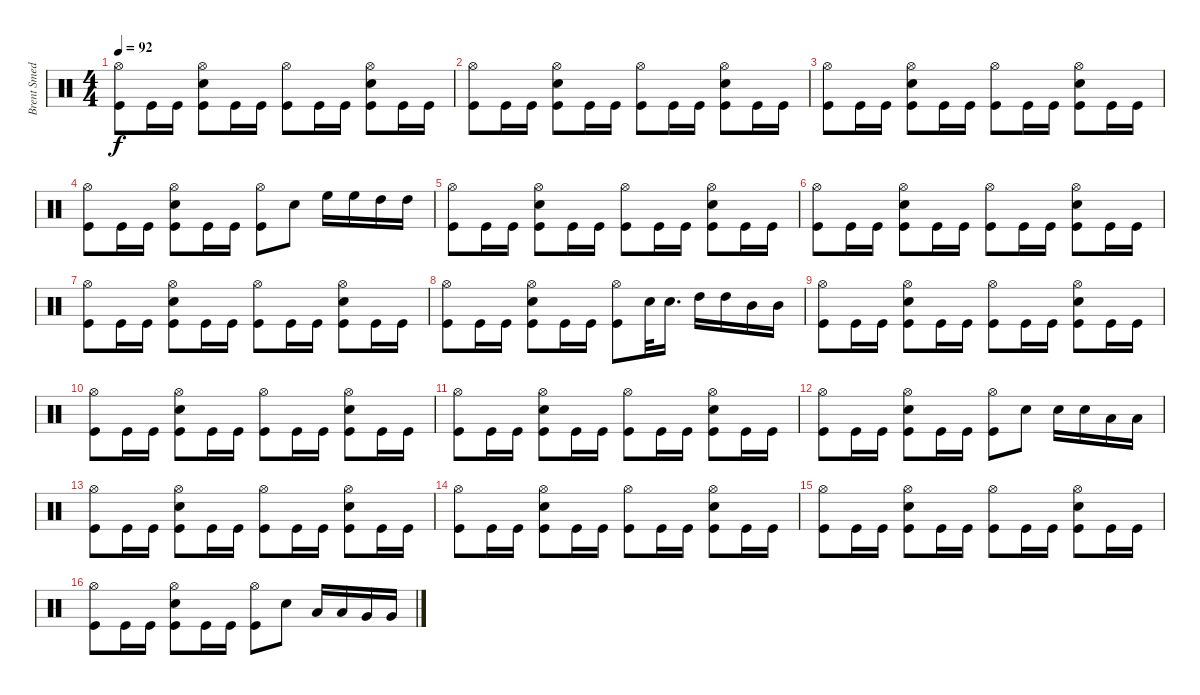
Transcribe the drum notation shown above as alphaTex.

\track ("Brent Smedley" "Brent Smed") {instrument percussion}
\staff {score}
\articulation defaults
\ts (4 4)
\tempo 92
\clef neutral
\ks c
("Hi-Hat (open)" "Kick (hit)").8{dy f} "Kick (hit)".16 "Kick (hit)".16 ("Hi-Hat (open)" "Electric Snare (hit)" "Kick (hit)").8 "Kick (hit)".16 "Kick (hit)".16 ("Hi-Hat (open)" "Kick (hit)").8 "Kick (hit)".16 "Kick (hit)".16 ("Hi-Hat (open)" "Electric Snare (hit)" "Kick (hit)").8 "Kick (hit)".16 "Kick (hit)".16 |
("Hi-Hat (open)" "Kick (hit)").8 "Kick (hit)".16 "Kick (hit)".16 ("Hi-Hat (open)" "Electric Snare (hit)" "Kick (hit)").8 "Kick (hit)".16 "Kick (hit)".16 ("Hi-Hat (open)" "Kick (hit)").8 "Kick (hit)".16 "Kick (hit)".16 ("Hi-Hat (open)" "Electric Snare (hit)" "Kick (hit)").8 "Kick (hit)".16 "Kick (hit)".16 |
("Hi-Hat (open)" "Kick (hit)").8 "Kick (hit)".16 "Kick (hit)".16 ("Hi-Hat (open)" "Electric Snare (hit)" "Kick (hit)").8 "Kick (hit)".16 "Kick (hit)".16 ("Hi-Hat (open)" "Kick (hit)").8 "Kick (hit)".16 "Kick (hit)".16 ("Hi-Hat (open)" "Electric Snare (hit)" "Kick (hit)").8 "Kick (hit)".16 "Kick (hit)".16 |
("Hi-Hat (open)" "Kick (hit)").8 "Kick (hit)".16 "Kick (hit)".16 ("Hi-Hat (open)" "Electric Snare (hit)" "Kick (hit)").8 "Kick (hit)".16 "Kick (hit)".16 ("Hi-Hat (open)" "Kick (hit)").8 "Electric Snare (hit)".8 "High Floor Tom (hit)".16 "High Floor Tom (hit)".16 "High Tom (hit)".16 "High Tom (hit)".16 |
("Hi-Hat (open)" "Kick (hit)").8 "Kick (hit)".16 "Kick (hit)".16 ("Hi-Hat (open)" "Electric Snare (hit)" "Kick (hit)").8 "Kick (hit)".16 "Kick (hit)".16 ("Hi-Hat (open)" "Kick (hit)").8 "Kick (hit)".16 "Kick (hit)".16 ("Hi-Hat (open)" "Electric Snare (hit)" "Kick (hit)").8 "Kick (hit)".16 "Kick (hit)".16 |
("Hi-Hat (open)" "Kick (hit)").8 "Kick (hit)".16 "Kick (hit)".16 ("Hi-Hat (open)" "Electric Snare (hit)" "Kick (hit)").8 "Kick (hit)".16 "Kick (hit)".16 ("Hi-Hat (open)" "Kick (hit)").8 "Kick (hit)".16 "Kick (hit)".16 ("Hi-Hat (open)" "Electric Snare (hit)" "Kick (hit)").8 "Kick (hit)".16 "Kick (hit)".16 |
("Hi-Hat (open)" "Kick (hit)").8 "Kick (hit)".16 "Kick (hit)".16 ("Hi-Hat (open)" "Electric Snare (hit)" "Kick (hit)").8 "Kick (hit)".16 "Kick (hit)".16 ("Hi-Hat (open)" "Kick (hit)").8 "Kick (hit)".16 "Kick (hit)".16 ("Hi-Hat (open)" "Electric Snare (hit)" "Kick (hit)").8 "Kick (hit)".16 "Kick (hit)".16 |
("Hi-Hat (open)" "Kick (hit)").8 "Kick (hit)".16 "Kick (hit)".16 ("Hi-Hat (open)" "Electric Snare (hit)" "Kick (hit)").8 "Kick (hit)".16 "Kick (hit)".16 ("Hi-Hat (open)" "Kick (hit)").8 "Electric Snare (hit)".32 "Electric Snare (hit)".16{d} "High Tom (hit)".16 "High Tom (hit)".16 "Mid Tom (hit)".16 "Mid Tom (hit)".16 |
("Hi-Hat (open)" "Kick (hit)").8 "Kick (hit)".16 "Kick (hit)".16 ("Hi-Hat (open)" "Electric Snare (hit)" "Kick (hit)").8 "Kick (hit)".16 "Kick (hit)".16 ("Hi-Hat (open)" "Kick (hit)").8 "Kick (hit)".16 "Kick (hit)".16 ("Hi-Hat (open)" "Electric Snare (hit)" "Kick (hit)").8 "Kick (hit)".16 "Kick (hit)".16 |
("Hi-Hat (open)" "Kick (hit)").8 "Kick (hit)".16 "Kick (hit)".16 ("Hi-Hat (open)" "Electric Snare (hit)" "Kick (hit)").8 "Kick (hit)".16 "Kick (hit)".16 ("Hi-Hat (open)" "Kick (hit)").8 "Kick (hit)".16 "Kick (hit)".16 ("Hi-Hat (open)" "Electric Snare (hit)" "Kick (hit)").8 "Kick (hit)".16 "Kick (hit)".16 |
("Hi-Hat (open)" "Kick (hit)").8 "Kick (hit)".16 "Kick (hit)".16 ("Hi-Hat (open)" "Electric Snare (hit)" "Kick (hit)").8 "Kick (hit)".16 "Kick (hit)".16 ("Hi-Hat (open)" "Kick (hit)").8 "Kick (hit)".16 "Kick (hit)".16 ("Hi-Hat (open)" "Electric Snare (hit)" "Kick (hit)").8 "Kick (hit)".16 "Kick (hit)".16 |
("Hi-Hat (open)" "Kick (hit)").8 "Kick (hit)".16 "Kick (hit)".16 ("Hi-Hat (open)" "Electric Snare (hit)" "Kick (hit)").8 "Kick (hit)".16 "Kick (hit)".16 ("Hi-Hat (open)" "Kick (hit)").8 "Electric Snare (hit)".8 "Electric Snare (hit)".16 "Electric Snare (hit)".16 "Low Tom (hit)".16 "Low Tom (hit)".16 |
("Hi-Hat (open)" "Kick (hit)").8 "Kick (hit)".16 "Kick (hit)".16 ("Hi-Hat (open)" "Electric Snare (hit)" "Kick (hit)").8 "Kick (hit)".16 "Kick (hit)".16 ("Hi-Hat (open)" "Kick (hit)").8 "Kick (hit)".16 "Kick (hit)".16 ("Hi-Hat (open)" "Electric Snare (hit)" "Kick (hit)").8 "Kick (hit)".16 "Kick (hit)".16 |
("Hi-Hat (open)" "Kick (hit)").8 "Kick (hit)".16 "Kick (hit)".16 ("Hi-Hat (open)" "Electric Snare (hit)" "Kick (hit)").8 "Kick (hit)".16 "Kick (hit)".16 ("Hi-Hat (open)" "Kick (hit)").8 "Kick (hit)".16 "Kick (hit)".16 ("Hi-Hat (open)" "Electric Snare (hit)" "Kick (hit)").8 "Kick (hit)".16 "Kick (hit)".16 |
("Hi-Hat (open)" "Kick (hit)").8 "Kick (hit)".16 "Kick (hit)".16 ("Hi-Hat (open)" "Electric Snare (hit)" "Kick (hit)").8 "Kick (hit)".16 "Kick (hit)".16 ("Hi-Hat (open)" "Kick (hit)").8 "Kick (hit)".16 "Kick (hit)".16 ("Hi-Hat (open)" "Electric Snare (hit)" "Kick (hit)").8 "Kick (hit)".16 "Kick (hit)".16 |
("Hi-Hat (open)" "Kick (hit)").8 "Kick (hit)".16 "Kick (hit)".16 ("Hi-Hat (open)" "Electric Snare (hit)" "Kick (hit)").8 "Kick (hit)".16 "Kick (hit)".16 ("Hi-Hat (open)" "Kick (hit)").8 "Electric Snare (hit)".8 "Low Tom (hit)".16 "Low Tom (hit)".16 "Very Low Tom (hit)".16 "Very Low Tom (hit)".16
